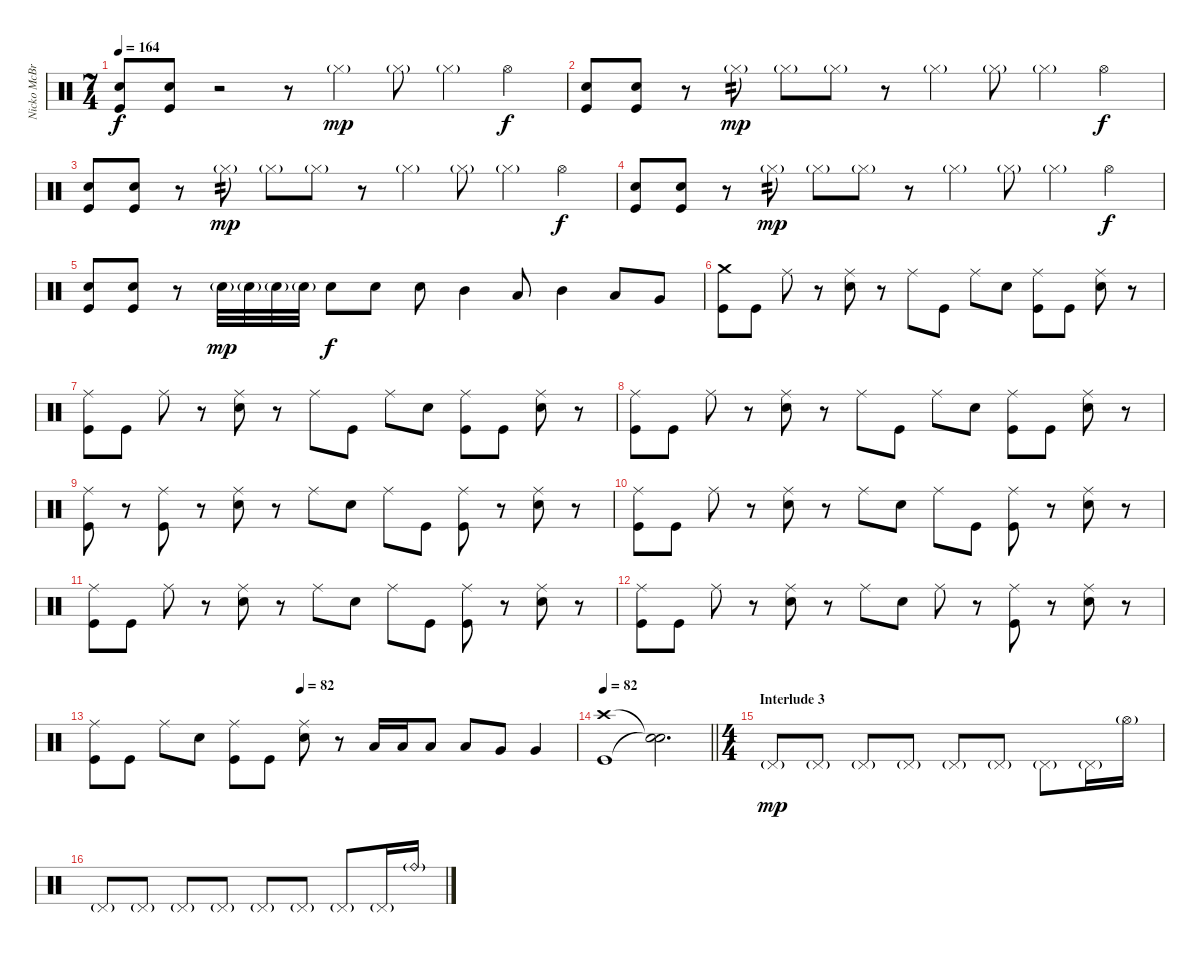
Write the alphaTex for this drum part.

\track ("Nicko McBrain" "Nicko McBr") {instrument percussion}
\staff {score}
\articulation defaults
\ts (7 4)
\tempo 164
\clef neutral
\ks c
("Electric Snare (hit)" "Kick (hit)").8{dy f} ("Electric Snare (hit)" "Kick (hit)").8 r.2 r.8 "Hi-Hat (closed)"{g}.4{dy mp} "Hi-Hat (closed)"{g}.8 "Hi-Hat (closed)"{g}.4 "Hi-Hat (open)".4{dy f} |
("Electric Snare (hit)" "Kick (hit)").8 ("Electric Snare (hit)" "Kick (hit)").8 r.8 "Hi-Hat (closed)"{g}.8{tp 2 dy mp} "Hi-Hat (closed)"{g}.8 "Hi-Hat (closed)"{g}.8 r.8 "Hi-Hat (closed)"{g}.4 "Hi-Hat (closed)"{g}.8 "Hi-Hat (closed)"{g}.4 "Hi-Hat (open)".4{dy f} |
("Electric Snare (hit)" "Kick (hit)").8 ("Electric Snare (hit)" "Kick (hit)").8 r.8 "Hi-Hat (closed)"{g}.8{tp 2 dy mp} "Hi-Hat (closed)"{g}.8 "Hi-Hat (closed)"{g}.8 r.8 "Hi-Hat (closed)"{g}.4 "Hi-Hat (closed)"{g}.8 "Hi-Hat (closed)"{g}.4 "Hi-Hat (open)".4{dy f} |
("Electric Snare (hit)" "Kick (hit)").8 ("Electric Snare (hit)" "Kick (hit)").8 r.8 "Hi-Hat (closed)"{g}.8{tp 2 dy mp} "Hi-Hat (closed)"{g}.8 "Hi-Hat (closed)"{g}.8 r.8 "Hi-Hat (closed)"{g}.4 "Hi-Hat (closed)"{g}.8 "Hi-Hat (closed)"{g}.4 "Hi-Hat (open)".4{dy f} |
("Electric Snare (hit)" "Kick (hit)").8 ("Electric Snare (hit)" "Kick (hit)").8 r.8 "Electric Snare (hit)"{g}.32{dy mp} "Electric Snare (hit)"{g}.32 "Electric Snare (hit)"{g}.32 "Electric Snare (hit)"{g}.32 "Electric Snare (hit)".8{dy f} "Electric Snare (hit)".8 "Electric Snare (hit)".8 "Mid Tom (hit)".4 "Low Tom (hit)".8 "Mid Tom (hit)".4 "Low Tom (hit)".8 "Very Low Tom (hit)".8 |
("Crash medium (hit)" "Kick (hit)").8 "Kick (hit)".8 "Ride (middle)".8 r.8 ("Ride (middle)" "Electric Snare (hit)").8 r.8 "Ride (middle)".8 "Kick (hit)".8 "Ride (middle)".8 "Electric Snare (hit)".8 ("Ride (middle)" "Kick (hit)").8 "Kick (hit)".8 ("Ride (middle)" "Electric Snare (hit)").8 r.8 |
("Ride (middle)" "Kick (hit)").8 "Kick (hit)".8 "Ride (middle)".8 r.8 ("Ride (middle)" "Electric Snare (hit)").8 r.8 "Ride (middle)".8 "Kick (hit)".8 "Ride (middle)".8 "Electric Snare (hit)".8 ("Ride (middle)" "Kick (hit)").8 "Kick (hit)".8 ("Ride (middle)" "Electric Snare (hit)").8 r.8 |
("Ride (middle)" "Kick (hit)").8 "Kick (hit)".8 "Ride (middle)".8 r.8 ("Ride (middle)" "Electric Snare (hit)").8 r.8 "Ride (middle)".8 "Kick (hit)".8 "Ride (middle)".8 "Electric Snare (hit)".8 ("Ride (middle)" "Kick (hit)").8 "Kick (hit)".8 ("Ride (middle)" "Electric Snare (hit)").8 r.8 |
("Ride (middle)" "Kick (hit)").8 r.8 ("Ride (middle)" "Kick (hit)").8 r.8 ("Ride (middle)" "Electric Snare (hit)").8 r.8 "Ride (middle)".8 "Electric Snare (hit)".8 "Ride (middle)".8 "Kick (hit)".8 ("Ride (middle)" "Kick (hit)").8 r.8 ("Ride (middle)" "Electric Snare (hit)").8 r.8 |
("Ride (middle)" "Kick (hit)").8 "Kick (hit)".8 "Ride (middle)".8 r.8 ("Ride (middle)" "Electric Snare (hit)").8 r.8 "Ride (middle)".8 "Electric Snare (hit)".8 "Ride (middle)".8 "Kick (hit)".8 ("Ride (middle)" "Kick (hit)").8 r.8 ("Ride (middle)" "Electric Snare (hit)").8 r.8 |
("Ride (middle)" "Kick (hit)").8 "Kick (hit)".8 "Ride (middle)".8 r.8 ("Ride (middle)" "Electric Snare (hit)").8 r.8 "Ride (middle)".8 "Electric Snare (hit)".8 "Ride (middle)".8 "Kick (hit)".8 ("Ride (middle)" "Kick (hit)").8 r.8 ("Ride (middle)" "Electric Snare (hit)").8 r.8 |
("Ride (middle)" "Kick (hit)").8 "Kick (hit)".8 "Ride (middle)".8 r.8 ("Ride (middle)" "Electric Snare (hit)").8 r.8 "Ride (middle)".8 "Electric Snare (hit)".8 "Ride (middle)".8 r.8 ("Ride (middle)" "Kick (hit)").8 r.8 ("Ride (middle)" "Electric Snare (hit)").8 r.8 |
\tempo (82 0.42857142857142855)
("Ride (middle)" "Kick (hit)").8 "Kick (hit)".8 "Ride (middle)".8 "Electric Snare (hit)".8 ("Ride (middle)" "Kick (hit)").8 "Kick (hit)".8 ("Ride (middle)" "Electric Snare (hit)").8 r.8 "Low Tom (hit)".16 "Low Tom (hit)".16 "Low Tom (hit)".8 "Low Tom (hit)".8 "Very Low Tom (hit)".8 "Very Low Tom (hit)".4 |
\tempo 82
\barLineRight lightlight
("Crash high (hit)" "Kick (hit)").1 ("Snare (hit)"{t} "Snare (hit)"{t}).2{d} |
\ts (4 4)
\section ("" "Interlude 3")
"Pedal Hi-Hat (hit)"{g}.8{dy mp} "Pedal Hi-Hat (hit)"{g}.8 "Pedal Hi-Hat (hit)"{g}.8 "Pedal Hi-Hat (hit)"{g}.8 "Pedal Hi-Hat (hit)"{g}.8 "Pedal Hi-Hat (hit)"{g}.8 "Pedal Hi-Hat (hit)"{g}.8 "Pedal Hi-Hat (hit)"{g}.16 "Hi-Hat (open)"{g}.16 |
"Pedal Hi-Hat (hit)"{g}.8 "Pedal Hi-Hat (hit)"{g}.8 "Pedal Hi-Hat (hit)"{g}.8 "Pedal Hi-Hat (hit)"{g}.8 "Pedal Hi-Hat (hit)"{g}.8 "Pedal Hi-Hat (hit)"{g}.8 "Pedal Hi-Hat (hit)"{g}.8 "Pedal Hi-Hat (hit)"{g}.16 "Ride (bell)"{g}.16
